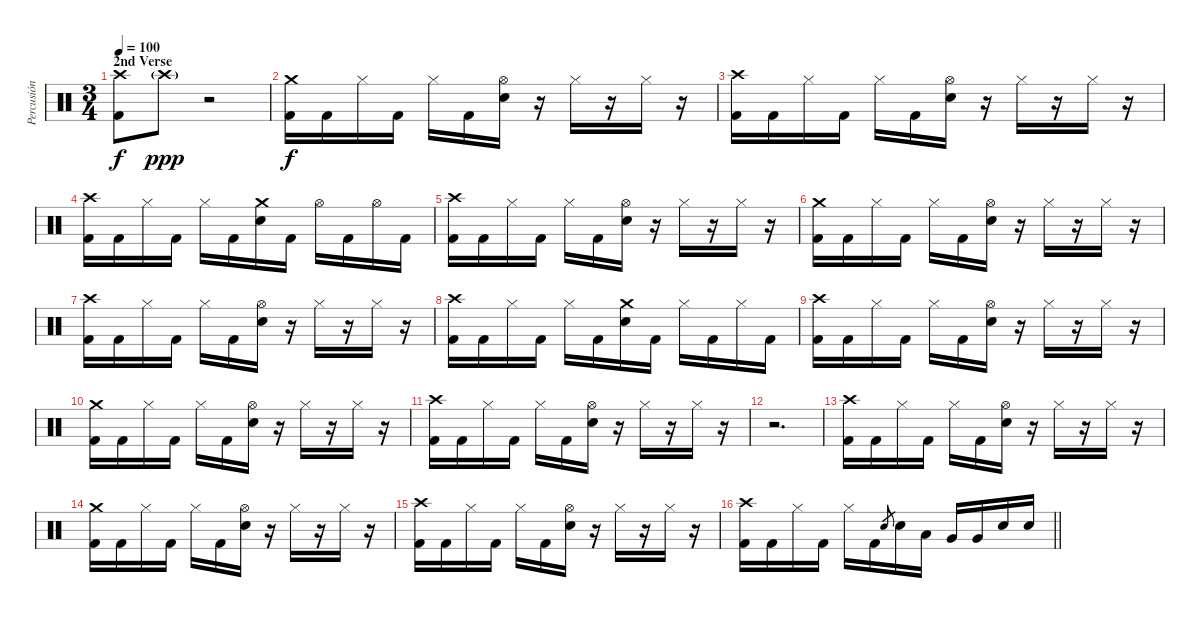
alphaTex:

\track ("Percusión" "Percusión") {instrument percussion}
\staff {score}
\articulation defaults
\ts (3 4)
\section ("" "2nd Verse")
\tempo 100
\clef neutral
\ks c
("Crash high (hit)" "Kick (hit) 2").8{dy f} "Crash high (hit)"{g}.8{dy ppp} r.2 |
("Crash medium (hit)" "Kick (hit) 2").16{dy f} "Kick (hit) 2".16 "Hi-Hat (closed)".16 "Kick (hit) 2".16 "Hi-Hat (closed)".16 "Kick (hit) 2".16 ("Hi-Hat (open)" "Electric Snare (hit)").16 r.16 "Hi-Hat (closed)".16 r.16 "Hi-Hat (closed)".16 r.16 |
("Crash high (hit)" "Kick (hit) 2").16 "Kick (hit) 2".16 "Hi-Hat (closed)".16 "Kick (hit) 2".16 "Hi-Hat (closed)".16 "Kick (hit) 2".16 ("Hi-Hat (open)" "Electric Snare (hit)").16 r.16 "Hi-Hat (closed)".16 r.16 "Hi-Hat (closed)".16 r.16 |
("Crash high (hit)" "Kick (hit) 2").16 "Kick (hit) 2".16 "Hi-Hat (closed)".16 "Kick (hit) 2".16 "Hi-Hat (closed)".16 "Kick (hit) 2".16 ("Crash medium (hit)" "Electric Snare (hit)").16 "Kick (hit) 2".16 "Hi-Hat (open)".16 "Kick (hit) 2".16 "Hi-Hat (open)".16 "Kick (hit) 2".16 |
("Crash high (hit)" "Kick (hit) 2").16 "Kick (hit) 2".16 "Hi-Hat (closed)".16 "Kick (hit) 2".16 "Hi-Hat (closed)".16 "Kick (hit) 2".16 ("Hi-Hat (open)" "Electric Snare (hit)").16 r.16 "Hi-Hat (closed)".16 r.16 "Hi-Hat (closed)".16 r.16 |
("Crash medium (hit)" "Kick (hit) 2").16 "Kick (hit) 2".16 "Hi-Hat (closed)".16 "Kick (hit) 2".16 "Hi-Hat (closed)".16 "Kick (hit) 2".16 ("Hi-Hat (open)" "Electric Snare (hit)").16 r.16 "Hi-Hat (closed)".16 r.16 "Hi-Hat (closed)".16 r.16 |
("Crash high (hit)" "Kick (hit) 2").16 "Kick (hit) 2".16 "Hi-Hat (closed)".16 "Kick (hit) 2".16 "Hi-Hat (closed)".16 "Kick (hit) 2".16 ("Hi-Hat (open)" "Electric Snare (hit)").16 r.16 "Hi-Hat (closed)".16 r.16 "Hi-Hat (closed)".16 r.16 |
("Crash high (hit)" "Kick (hit) 2").16 "Kick (hit) 2".16 "Hi-Hat (closed)".16 "Kick (hit) 2".16 "Hi-Hat (closed)".16 "Kick (hit) 2".16 ("Crash medium (hit)" "Electric Snare (hit)").16 "Kick (hit) 2".16 "Hi-Hat (closed)".16 "Kick (hit) 2".16 "Hi-Hat (closed)".16 "Kick (hit) 2".16 |
("Crash high (hit)" "Kick (hit) 2").16 "Kick (hit) 2".16 "Hi-Hat (closed)".16 "Kick (hit) 2".16 "Hi-Hat (closed)".16 "Kick (hit) 2".16 ("Hi-Hat (open)" "Electric Snare (hit)").16 r.16 "Hi-Hat (closed)".16 r.16 "Hi-Hat (closed)".16 r.16 |
("Crash medium (hit)" "Kick (hit) 2").16 "Kick (hit) 2".16 "Hi-Hat (closed)".16 "Kick (hit) 2".16 "Hi-Hat (closed)".16 "Kick (hit) 2".16 ("Hi-Hat (open)" "Electric Snare (hit)").16 r.16 "Hi-Hat (closed)".16 r.16 "Hi-Hat (closed)".16 r.16 |
("Crash high (hit)" "Kick (hit) 2").16 "Kick (hit) 2".16 "Hi-Hat (closed)".16 "Kick (hit) 2".16 "Hi-Hat (closed)".16 "Kick (hit) 2".16 ("Hi-Hat (open)" "Electric Snare (hit)").16 r.16 "Hi-Hat (closed)".16 r.16 "Hi-Hat (closed)".16 r.16 |
r.2{d} |
("Crash high (hit)" "Kick (hit) 2").16 "Kick (hit) 2".16 "Hi-Hat (closed)".16 "Kick (hit) 2".16 "Hi-Hat (closed)".16 "Kick (hit) 2".16 ("Hi-Hat (open)" "Electric Snare (hit)").16 r.16 "Hi-Hat (closed)".16 r.16 "Hi-Hat (closed)".16 r.16 |
("Crash medium (hit)" "Kick (hit) 2").16 "Kick (hit) 2".16 "Hi-Hat (closed)".16 "Kick (hit) 2".16 "Hi-Hat (closed)".16 "Kick (hit) 2".16 ("Hi-Hat (open)" "Electric Snare (hit)").16 r.16 "Hi-Hat (closed)".16 r.16 "Hi-Hat (closed)".16 r.16 |
("Crash high (hit)" "Kick (hit) 2").16 "Kick (hit) 2".16 "Hi-Hat (closed)".16 "Kick (hit) 2".16 "Hi-Hat (closed)".16 "Kick (hit) 2".16 ("Hi-Hat (open)" "Electric Snare (hit)").16 r.16 "Hi-Hat (closed)".16 r.16 "Hi-Hat (closed)".16 r.16 |
\barLineRight lightlight
("Crash high (hit)" "Kick (hit) 2").16 "Kick (hit) 2".16 "Hi-Hat (closed)".16 "Kick (hit) 2".16 "Hi-Hat (closed)".16 "Kick (hit) 2".16 "Electric Snare (hit)".8{gr} "Electric Snare (hit)".16 "Low Tom (hit)".16 "Very Low Tom (hit)".16 "Very Low Tom (hit)".16 "Electric Snare (hit)".16 "Electric Snare (hit)".16
